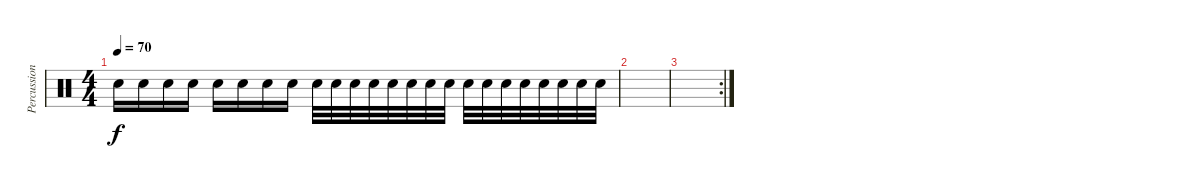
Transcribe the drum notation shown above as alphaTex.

\track ("Percussions" "Percussion") {instrument percussion}
\staff {score}
\articulation defaults
\ts (4 4)
\tempo 70
\clef neutral
\ks c "Snare (hit) 2".16{dy f} "Snare (hit) 2".16 "Snare (hit) 2".16 "Snare (hit) 2".16 "Snare (hit) 2".16 "Snare (hit) 2".16 "Snare (hit) 2".16 "Snare (hit) 2".16 "Snare (hit) 2".32 "Snare (hit) 2".32 "Snare (hit) 2".32 "Snare (hit) 2".32 "Snare (hit) 2".32 "Snare (hit) 2".32 "Snare (hit) 2".32 "Snare (hit) 2".32 "Snare (hit) 2".32 "Snare (hit) 2".32 "Snare (hit) 2".32 "Snare (hit) 2".32 "Snare (hit) 2".32 "Snare (hit) 2".32 "Snare (hit) 2".32 "Snare (hit) 2".32
|
|
\rc 2
